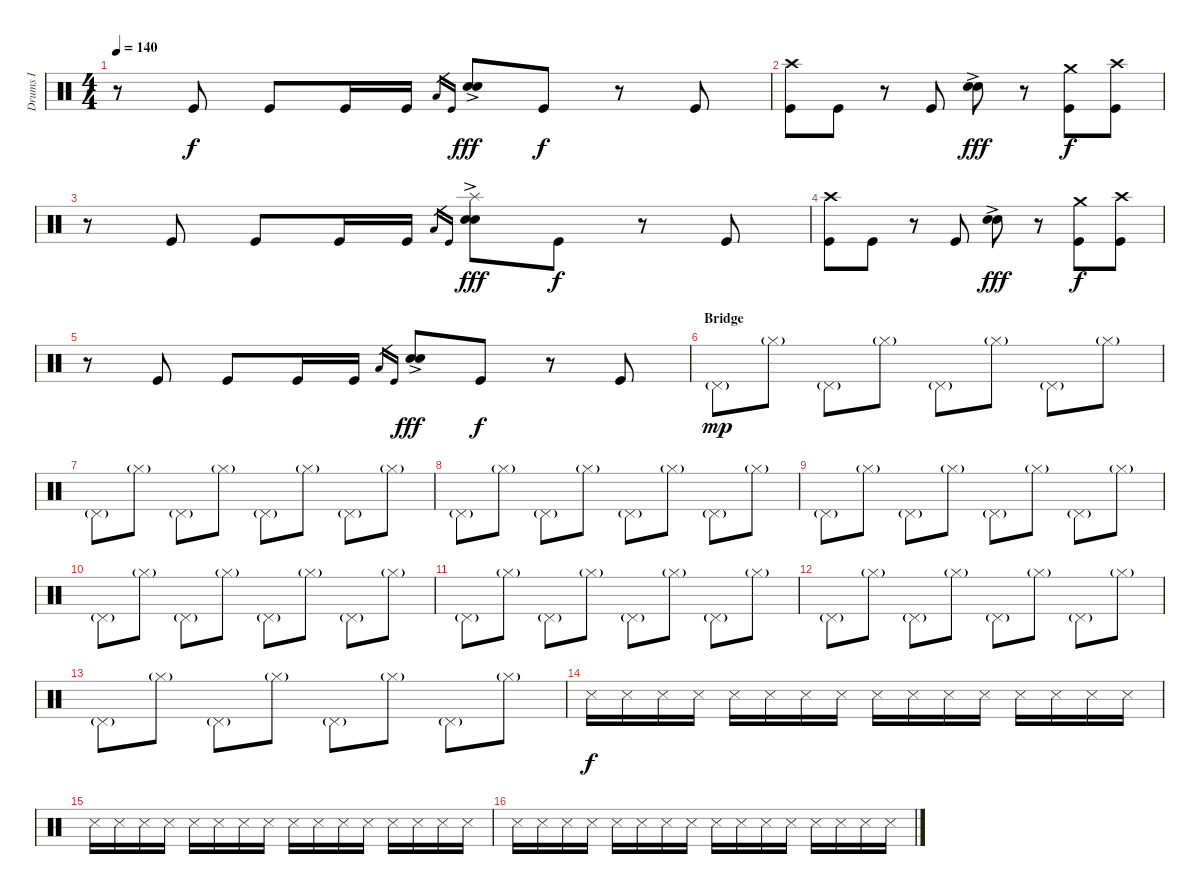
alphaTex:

\track ("Drums I" "Drums I") {instrument percussion}
\staff {score}
\articulation defaults
\ts (4 4)
\tempo 140
\clef neutral
\ks c
r.8{dy f} "Kick (hit)".8 "Kick (hit)".8 "Kick (hit)".16 "Kick (hit)".16 "Low Floor Tom (hit)".16{gr} "Kick (hit)".16{gr} ("Electric Snare (hit)"{ac} "Snare (hit) 2").8{dy fff} "Kick (hit)".8{dy f} r.8 "Kick (hit)".8 |
("Crash high (hit)" "Kick (hit)").8 "Kick (hit)".8 r.8 "Kick (hit)".8 ("Electric Snare (hit)"{ac} "Snare (hit) 2").8{dy fff} r.8 ("Crash medium (hit)" "Kick (hit)").8{dy f} ("Crash high (hit)" "Kick (hit)").8 |
r.8 "Kick (hit)".8 "Kick (hit)".8 "Kick (hit)".16 "Kick (hit)".16 "Low Floor Tom (hit)".16{gr} "Kick (hit)".16{gr} ("Splash (hit)" "Electric Snare (hit)"{ac} "Snare (hit) 2").8{dy fff} "Kick (hit)".8{dy f} r.8 "Kick (hit)".8 |
("Crash high (hit)" "Kick (hit)").8 "Kick (hit)".8 r.8 "Kick (hit)".8 ("Electric Snare (hit)"{ac} "Snare (hit) 2").8{dy fff} r.8 ("Crash medium (hit)" "Kick (hit)").8{dy f} ("Crash high (hit)" "Kick (hit)").8 |
r.8 "Kick (hit)".8 "Kick (hit)".8 "Kick (hit)".16 "Kick (hit)".16 "Low Floor Tom (hit)".16{gr} "Kick (hit)".16{gr} ("Electric Snare (hit)"{ac} "Snare (hit) 2").8{dy fff} "Kick (hit)".8{dy f} r.8 "Kick (hit)".8 |
\section ("" "Bridge")
"Pedal Hi-Hat (hit)"{g}.8{dy mp} "Hi-Hat (closed)"{g}.8 "Pedal Hi-Hat (hit)"{g}.8 "Hi-Hat (closed)"{g}.8 "Pedal Hi-Hat (hit)"{g}.8 "Hi-Hat (closed)"{g}.8 "Pedal Hi-Hat (hit)"{g}.8 "Hi-Hat (closed)"{g}.8 |
"Pedal Hi-Hat (hit)"{g}.8 "Hi-Hat (closed)"{g}.8 "Pedal Hi-Hat (hit)"{g}.8 "Hi-Hat (closed)"{g}.8 "Pedal Hi-Hat (hit)"{g}.8 "Hi-Hat (closed)"{g}.8 "Pedal Hi-Hat (hit)"{g}.8 "Hi-Hat (closed)"{g}.8 |
"Pedal Hi-Hat (hit)"{g}.8 "Hi-Hat (closed)"{g}.8 "Pedal Hi-Hat (hit)"{g}.8 "Hi-Hat (closed)"{g}.8 "Pedal Hi-Hat (hit)"{g}.8 "Hi-Hat (closed)"{g}.8 "Pedal Hi-Hat (hit)"{g}.8 "Hi-Hat (closed)"{g}.8 |
"Pedal Hi-Hat (hit)"{g}.8 "Hi-Hat (closed)"{g}.8 "Pedal Hi-Hat (hit)"{g}.8 "Hi-Hat (closed)"{g}.8 "Pedal Hi-Hat (hit)"{g}.8 "Hi-Hat (closed)"{g}.8 "Pedal Hi-Hat (hit)"{g}.8 "Hi-Hat (closed)"{g}.8 |
"Pedal Hi-Hat (hit)"{g}.8 "Hi-Hat (closed)"{g}.8 "Pedal Hi-Hat (hit)"{g}.8 "Hi-Hat (closed)"{g}.8 "Pedal Hi-Hat (hit)"{g}.8 "Hi-Hat (closed)"{g}.8 "Pedal Hi-Hat (hit)"{g}.8 "Hi-Hat (closed)"{g}.8 |
"Pedal Hi-Hat (hit)"{g}.8 "Hi-Hat (closed)"{g}.8 "Pedal Hi-Hat (hit)"{g}.8 "Hi-Hat (closed)"{g}.8 "Pedal Hi-Hat (hit)"{g}.8 "Hi-Hat (closed)"{g}.8 "Pedal Hi-Hat (hit)"{g}.8 "Hi-Hat (closed)"{g}.8 |
"Pedal Hi-Hat (hit)"{g}.8 "Hi-Hat (closed)"{g}.8 "Pedal Hi-Hat (hit)"{g}.8 "Hi-Hat (closed)"{g}.8 "Pedal Hi-Hat (hit)"{g}.8 "Hi-Hat (closed)"{g}.8 "Pedal Hi-Hat (hit)"{g}.8 "Hi-Hat (closed)"{g}.8 |
"Pedal Hi-Hat (hit)"{g}.8 "Hi-Hat (closed)"{g}.8 "Pedal Hi-Hat (hit)"{g}.8 "Hi-Hat (closed)"{g}.8 "Pedal Hi-Hat (hit)"{g}.8 "Hi-Hat (closed)"{g}.8 "Pedal Hi-Hat (hit)"{g}.8 "Hi-Hat (closed)"{g}.8{volume 3} |
"Snare (side stick) 3".16{dy f volume 6} "Snare (side stick) 3".16 "Snare (side stick) 3".16 "Snare (side stick) 3".16 "Snare (side stick) 3".16 "Snare (side stick) 3".16 "Snare (side stick) 3".16 "Snare (side stick) 3".16 "Snare (side stick) 3".16 "Snare (side stick) 3".16 "Snare (side stick) 3".16 "Snare (side stick) 3".16 "Snare (side stick) 3".16 "Snare (side stick) 3".16 "Snare (side stick) 3".16 "Snare (side stick) 3".16 |
"Snare (side stick) 3".16 "Snare (side stick) 3".16 "Snare (side stick) 3".16 "Snare (side stick) 3".16 "Snare (side stick) 3".16 "Snare (side stick) 3".16 "Snare (side stick) 3".16 "Snare (side stick) 3".16 "Snare (side stick) 3".16 "Snare (side stick) 3".16 "Snare (side stick) 3".16 "Snare (side stick) 3".16 "Snare (side stick) 3".16 "Snare (side stick) 3".16 "Snare (side stick) 3".16 "Snare (side stick) 3".16 |
"Snare (side stick) 3".16 "Snare (side stick) 3".16 "Snare (side stick) 3".16 "Snare (side stick) 3".16 "Snare (side stick) 3".16 "Snare (side stick) 3".16 "Snare (side stick) 3".16 "Snare (side stick) 3".16 "Snare (side stick) 3".16 "Snare (side stick) 3".16 "Snare (side stick) 3".16 "Snare (side stick) 3".16 "Snare (side stick) 3".16 "Snare (side stick) 3".16 "Snare (side stick) 3".16 "Snare (side stick) 3".16
